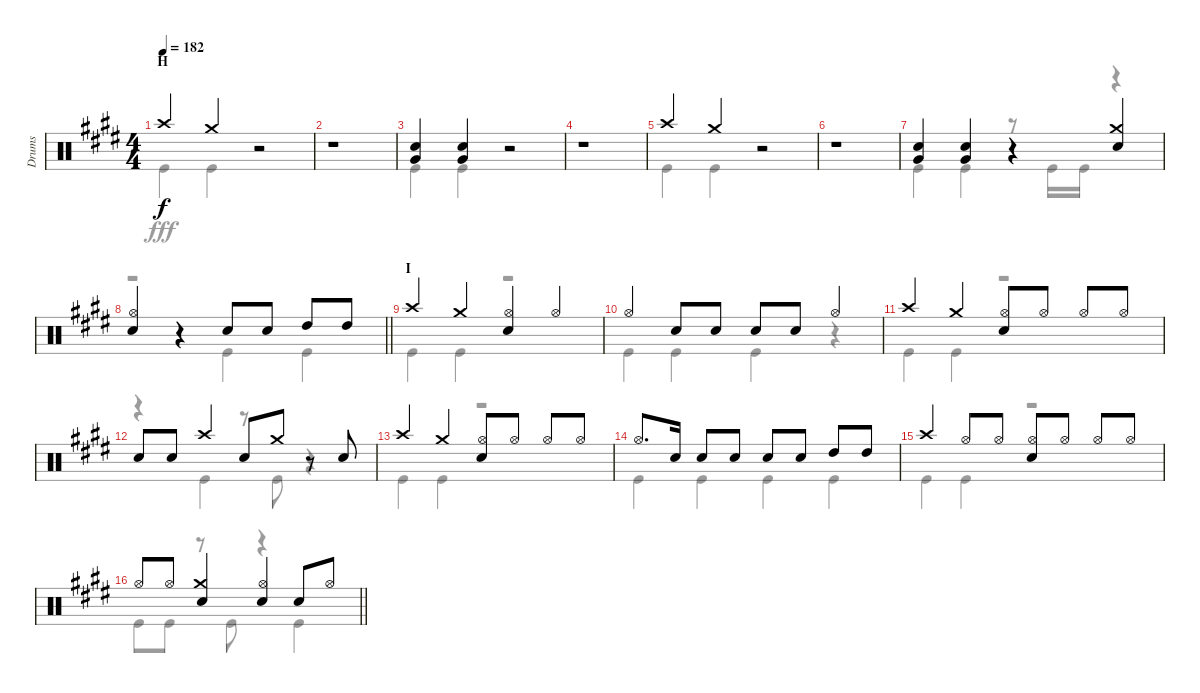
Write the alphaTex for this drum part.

\track ("Drums" "Drums") {instrument percussion}
\staff {score}
\articulation defaults
\voice
\ts (4 4)
\section ("" "H")
\tempo 182
\clef neutral
\ks e "Crash high (hit)".4{dy f} "Crash medium (hit)".4
r.2 |
r.1 |
("Snare (hit) 2" "Very Low Tom (hit)").4 ("Snare (hit) 2" "Very Low Tom (hit)").4 r.2 |
r.1 |
"Crash high (hit)".4 "Crash medium (hit)".4 r.2 |
r.1 |
("Snare (hit) 2" "Very Low Tom (hit)").4 ("Snare (hit) 2" "Very Low Tom (hit)").4 r.4 ("Crash medium (hit)" "Snare (hit) 2").4 |
\barLineRight lightlight
("Hi-Hat (open)" "Snare (hit) 2").4 r.4 "Snare (hit) 2".8 "Snare (hit) 2".8 "High Tom (hit)".8 "High Tom (hit)".8 |
\section ("" "I")
"Crash high (hit)".4 "Crash medium (hit)".4 ("Hi-Hat (open)" "Snare (hit) 2").4 "Hi-Hat (open)".4 |
"Hi-Hat (open)".4 "Snare (hit) 2".8 "Snare (hit) 2".8 "Snare (hit) 2".8 "Snare (hit) 2".8 "Hi-Hat (open)".4 |
"Crash high (hit)".4 "Crash medium (hit)".4 ("Hi-Hat (open)" "Snare (hit) 2").8 "Hi-Hat (open)".8 "Hi-Hat (open)".8 "Hi-Hat (open)".8 |
"Snare (hit) 2".8 "Snare (hit) 2".8 "Crash high (hit)".4 "Snare (hit) 2".8 "Crash medium (hit)".8 r.8 "Snare (hit) 2".8 |
"Crash high (hit)".4 "Crash medium (hit)".4 ("Hi-Hat (open)" "Snare (hit) 2").8 "Hi-Hat (open)".8 "Hi-Hat (open)".8 "Hi-Hat (open)".8 |
"Hi-Hat (open)".8{d} "Snare (hit) 2".16 "Snare (hit) 2".8 "Snare (hit) 2".8 "Snare (hit) 2".8 "Snare (hit) 2".8 "High Tom (hit)".8 "High Tom (hit)".8 |
"Crash high (hit)".4 "Hi-Hat (open)".8 "Hi-Hat (open)".8 ("Hi-Hat (open)" "Snare (hit) 2").8 "Hi-Hat (open)".8 "Hi-Hat (open)".8 "Hi-Hat (open)".8 |
\barLineRight lightlight "Hi-Hat (open)".8 "Hi-Hat (open)".8
("Crash medium (hit)" "Snare (hit) 2").4 ("Hi-Hat (open)" "Snare (hit) 2").4 "Snare (hit) 2".8 "Hi-Hat (open)".8
\voice
\clef neutral
\ottava regular
\simile none
\ks e "Kick (hit)".4{dy fff} "Kick (hit)".4
r.2 |
r.1 |
"Kick (hit)".4 "Kick (hit)".4 r.2 |
r.1 |
"Kick (hit)".4 "Kick (hit)".4 r.2 |
r.1 |
"Kick (hit)".4 "Kick (hit)".4 r.8 "Kick (hit)".16 "Kick (hit)".16 r.4 |
\barLineRight lightlight
r.2 "Kick (hit)".4 "Kick (hit)".4 |
"Kick (hit)".4 "Kick (hit)".4 r.2 |
"Kick (hit)".4 "Kick (hit)".4 "Kick (hit)".4 r.4 |
"Kick (hit)".4 "Kick (hit)".4 r.2 |
r.4 "Kick (hit)".4 r.8 "Kick (hit)".8 r.4 |
"Kick (hit)".4 "Kick (hit)".4 r.2 |
"Kick (hit)".4 "Kick (hit)".4 "Kick (hit)".4 "Kick (hit)".4 |
"Kick (hit)".4 "Kick (hit)".4 r.2 |
\barLineRight lightlight "Kick (hit)".8 "Kick (hit)".8
r.8 "Kick (hit)".8 r.4 "Kick (hit)".4
